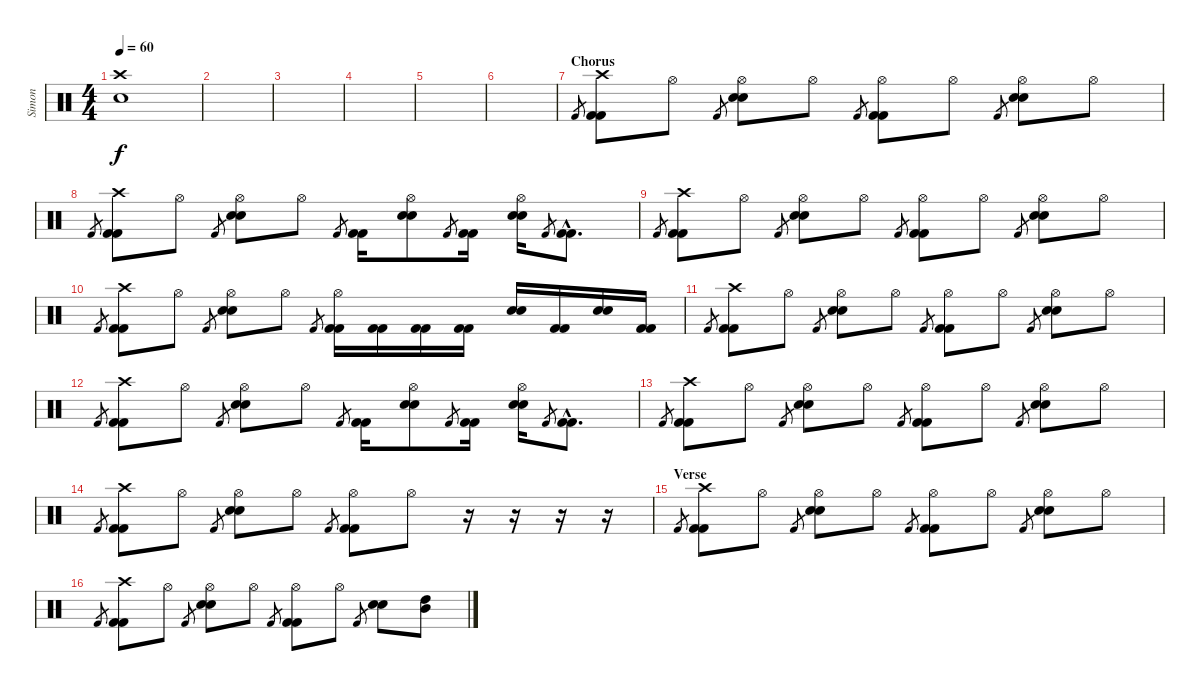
\track ("Simon" "Simon") {instrument percussion}
\staff {score}
\articulation defaults
\ts (4 4)
\tempo 60
\clef neutral
\ks c
("Crash high (hit)" "Electric Snare (hit)").1{dy f} |
|
|
|
|
|
\section ("" "Chorus")
"Kick (hit) 2".8{gr} ("Crash high (hit)" "Kick (hit) 2" "Kick (hit) 2").8 "Hi-Hat (open)".8 "Kick (hit) 2".8{gr} ("Hi-Hat (open)" "Electric Snare (hit)" "Electric Snare (hit)").8 "Hi-Hat (open)".8 "Kick (hit) 2".8{gr} ("Hi-Hat (open)" "Kick (hit) 2" "Kick (hit) 2").8 "Hi-Hat (open)".8 "Kick (hit) 2".8{gr} ("Hi-Hat (open)" "Electric Snare (hit)" "Electric Snare (hit)").8 "Hi-Hat (open)".8 |
"Kick (hit) 2".8{gr} ("Crash high (hit)" "Kick (hit) 2" "Kick (hit) 2").8 "Hi-Hat (open)".8 "Kick (hit) 2".8{gr} ("Hi-Hat (open)" "Electric Snare (hit)" "Electric Snare (hit)").8 "Hi-Hat (open)".8 "Kick (hit) 2".8{gr} ("Kick (hit) 2" "Kick (hit) 2").16 ("Hi-Hat (open)" "Electric Snare (hit)" "Electric Snare (hit)").8 "Kick (hit) 2".8{gr} ("Kick (hit) 2" "Kick (hit) 2").16 ("Hi-Hat (open)" "Electric Snare (hit)" "Electric Snare (hit)").16 "Kick (hit) 2".8{gr} ("Kick (hit) 2"{hac} "Kick (hit) 2"{hac}).8{d} |
"Kick (hit) 2".8{gr} ("Crash high (hit)" "Kick (hit) 2" "Kick (hit) 2").8 "Hi-Hat (open)".8 "Kick (hit) 2".8{gr} ("Hi-Hat (open)" "Electric Snare (hit)" "Electric Snare (hit)").8 "Hi-Hat (open)".8 "Kick (hit) 2".8{gr} ("Hi-Hat (open)" "Kick (hit) 2" "Kick (hit) 2").8 "Hi-Hat (open)".8 "Kick (hit) 2".8{gr} ("Hi-Hat (open)" "Electric Snare (hit)" "Electric Snare (hit)").8 "Hi-Hat (open)".8 |
"Kick (hit) 2".8{gr} ("Crash high (hit)" "Kick (hit) 2" "Kick (hit) 2").8 "Hi-Hat (open)".8 "Kick (hit) 2".8{gr} ("Hi-Hat (open)" "Electric Snare (hit)" "Electric Snare (hit)").8 "Hi-Hat (open)".8 "Kick (hit) 2".8{gr} ("Hi-Hat (open)" "Kick (hit) 2" "Kick (hit) 2").16 ("Kick (hit) 2" "Kick (hit) 2").16 ("Kick (hit) 2" "Kick (hit) 2").16 ("Kick (hit) 2" "Kick (hit) 2").16 ("Electric Snare (hit)" "Electric Snare (hit)").16 ("Kick (hit) 2" "Kick (hit) 2").16 ("Electric Snare (hit)" "Electric Snare (hit)").16 ("Kick (hit) 2" "Kick (hit) 2").16 |
"Kick (hit) 2".8{gr} ("Crash high (hit)" "Kick (hit) 2" "Kick (hit) 2").8 "Hi-Hat (open)".8 "Kick (hit) 2".8{gr} ("Hi-Hat (open)" "Electric Snare (hit)" "Electric Snare (hit)").8 "Hi-Hat (open)".8 "Kick (hit) 2".8{gr} ("Hi-Hat (open)" "Kick (hit) 2" "Kick (hit) 2").8 "Hi-Hat (open)".8 "Kick (hit) 2".8{gr} ("Hi-Hat (open)" "Electric Snare (hit)" "Electric Snare (hit)").8 "Hi-Hat (open)".8 |
"Kick (hit) 2".8{gr} ("Crash high (hit)" "Kick (hit) 2" "Kick (hit) 2").8 "Hi-Hat (open)".8 "Kick (hit) 2".8{gr} ("Hi-Hat (open)" "Electric Snare (hit)" "Electric Snare (hit)").8 "Hi-Hat (open)".8 "Kick (hit) 2".8{gr} ("Kick (hit) 2" "Kick (hit) 2").16 ("Hi-Hat (open)" "Electric Snare (hit)" "Electric Snare (hit)").8 "Kick (hit) 2".8{gr} ("Kick (hit) 2" "Kick (hit) 2").16 ("Hi-Hat (open)" "Electric Snare (hit)" "Electric Snare (hit)").16 "Kick (hit) 2".8{gr} ("Kick (hit) 2"{hac} "Kick (hit) 2"{hac}).8{d} |
"Kick (hit) 2".8{gr} ("Crash high (hit)" "Kick (hit) 2" "Kick (hit) 2").8 "Hi-Hat (open)".8 "Kick (hit) 2".8{gr} ("Hi-Hat (open)" "Electric Snare (hit)" "Electric Snare (hit)").8 "Hi-Hat (open)".8 "Kick (hit) 2".8{gr} ("Hi-Hat (open)" "Kick (hit) 2" "Kick (hit) 2").8 "Hi-Hat (open)".8 "Kick (hit) 2".8{gr} ("Hi-Hat (open)" "Electric Snare (hit)" "Electric Snare (hit)").8 "Hi-Hat (open)".8 |
"Kick (hit) 2".8{gr} ("Crash high (hit)" "Kick (hit) 2" "Kick (hit) 2").8 "Hi-Hat (open)".8 "Kick (hit) 2".8{gr} ("Hi-Hat (open)" "Electric Snare (hit)" "Electric Snare (hit)").8 "Hi-Hat (open)".8 "Kick (hit) 2".8{gr} ("Hi-Hat (open)" "Kick (hit) 2" "Kick (hit) 2").8 "Hi-Hat (open)".8 r.16 r.16 r.16 r.16 |
\section ("" "Verse")
"Kick (hit) 2".8{gr} ("Crash high (hit)" "Kick (hit) 2" "Kick (hit) 2").8 "Hi-Hat (open)".8 "Kick (hit) 2".8{gr} ("Hi-Hat (open)" "Electric Snare (hit)" "Electric Snare (hit)").8 "Hi-Hat (open)".8 "Kick (hit) 2".8{gr} ("Hi-Hat (open)" "Kick (hit) 2" "Kick (hit) 2").8 "Hi-Hat (open)".8 "Kick (hit) 2".8{gr} ("Hi-Hat (open)" "Electric Snare (hit)" "Electric Snare (hit)").8 "Hi-Hat (open)".8 |
"Kick (hit) 2".8{gr} ("Crash high (hit)" "Kick (hit) 2" "Kick (hit) 2").8 "Hi-Hat (open)".8 "Kick (hit) 2".8{gr} ("Hi-Hat (open)" "Electric Snare (hit)" "Electric Snare (hit)").8 "Hi-Hat (open)".8 "Kick (hit) 2".8{gr} ("Hi-Hat (open)" "Kick (hit) 2" "Kick (hit) 2").8 "Hi-Hat (open)".8 "Kick (hit) 2".8{gr} ("Electric Snare (hit)" "Electric Snare (hit)").8 ("High Tom (hit)" "Mid Tom (hit)").8
